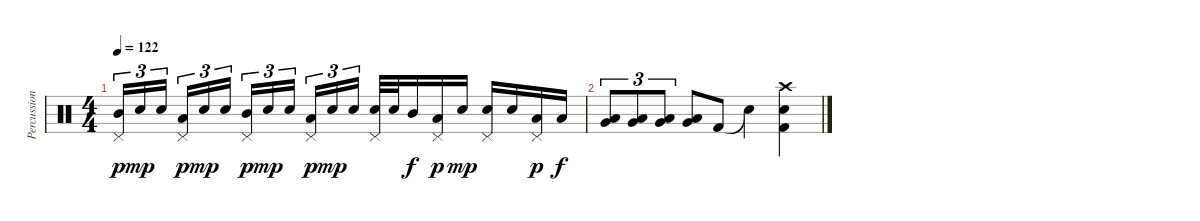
\track ("Percussion (Peter)" "Percussion") {instrument percussion}
\staff {score}
\articulation defaults
\ts (4 4)
\tempo 122
\clef neutral
\ks c
("Pedal Hi-Hat (hit)" "Mid Tom (hit)").16{tu (3 2) dy p} "Snare (hit) 2".16{tu (3 2) dy mp} "Snare (hit) 2".16{tu (3 2) beam splitsecondary} ("Pedal Hi-Hat (hit)" "Low Tom (hit)").16{tu (3 2) dy p} "Snare (hit) 2".16{tu (3 2) dy mp} "Snare (hit) 2".16{tu (3 2)} ("Pedal Hi-Hat (hit)" "Mid Tom (hit)").16{tu (3 2) dy p} "Snare (hit) 2".16{tu (3 2) dy mp} "Snare (hit) 2".16{tu (3 2) beam splitsecondary} ("Pedal Hi-Hat (hit)" "Low Tom (hit)").16{tu (3 2) dy p} "Snare (hit) 2".16{tu (3 2) dy mp} "Snare (hit) 2".16{tu (3 2)} ("Pedal Hi-Hat (hit)" "Snare (hit) 2").32 "Snare (hit) 2".32 "Mid Tom (hit)".16{dy f} ("Pedal Hi-Hat (hit)" "Low Tom (hit)").16{dy p} "Snare (hit) 2".16{dy mp} ("Pedal Hi-Hat (hit)" "Snare (hit) 2").16 "Snare (hit) 2".16 ("Pedal Hi-Hat (hit)" "Low Tom (hit)").16{dy p} "Low Tom (hit)".16{dy f} |
("Low Tom (hit)" "Very Low Tom (hit)").8{tu (3 2)} ("Low Tom (hit)" "Very Low Tom (hit)").8{tu (3 2)} ("Very Low Tom (hit)" "Low Floor Tom (hit)").8{tu (3 2)} ("Very Low Tom (hit)" "Low Floor Tom (hit)").8 "Kick (hit) 2".8 "Snare (hit)"{t}.4 ("Crash high (hit)" "Snare (hit) 2" "Kick (hit) 2").4
